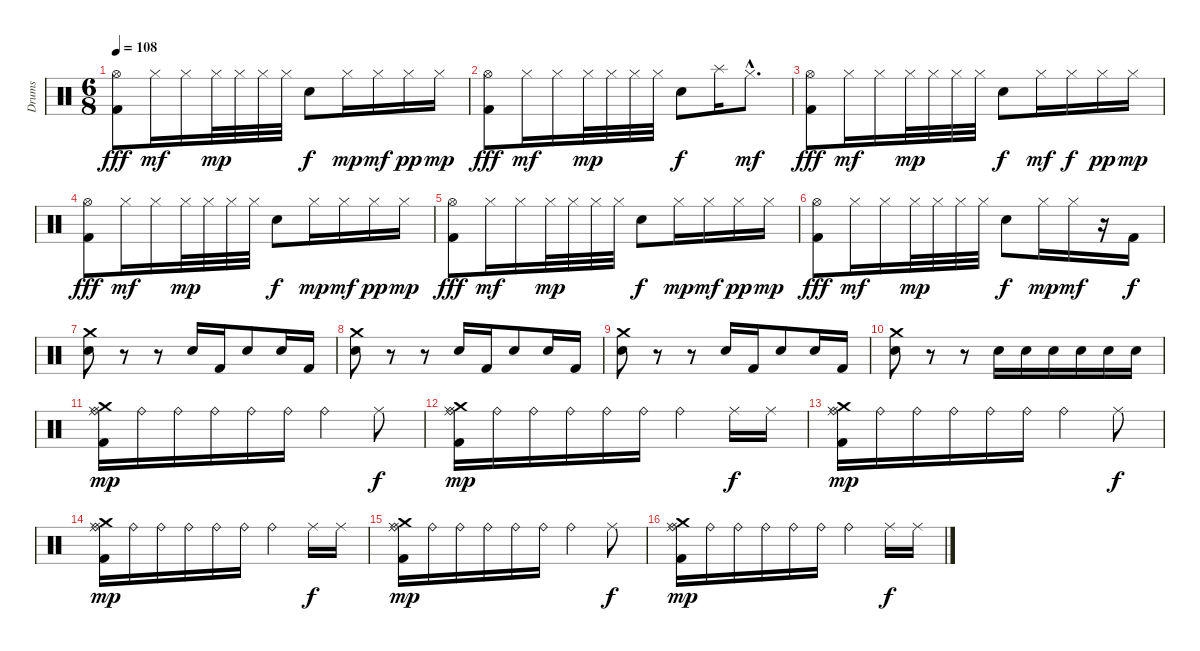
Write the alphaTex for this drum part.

\track ("Drums" "Drums") {instrument percussion}
\staff {score}
\articulation defaults
\ts (6 8)
\tempo 108
\clef neutral
\ks c
("Hi-Hat (open)" "Kick (hit) 2").8{dy fff} "Hi-Hat (closed)".16{dy mf} "Hi-Hat (closed)".16 "Hi-Hat (closed)".32{dy mp} "Hi-Hat (closed)".32 "Hi-Hat (closed)".32 "Hi-Hat (closed)".32 "Snare (hit) 2".8{dy f} "Hi-Hat (closed)".16{dy mp} "Hi-Hat (closed)".16{dy mf} "Hi-Hat (closed)".16{dy pp} "Hi-Hat (closed)".16{dy mp} |
("Hi-Hat (open)" "Kick (hit) 2").8{dy fff} "Hi-Hat (closed)".16{dy mf} "Hi-Hat (closed)".16 "Hi-Hat (closed)".32{dy mp} "Hi-Hat (closed)".32 "Hi-Hat (closed)".32 "Hi-Hat (closed)".32 "Snare (hit) 2".8{dy f} "Splash (hit)".16 "Hi-Hat (closed)"{hac}.8{d dy mf} |
("Hi-Hat (open)" "Kick (hit) 2").8{dy fff} "Hi-Hat (closed)".16{dy mf} "Hi-Hat (closed)".16 "Hi-Hat (closed)".32{dy mp} "Hi-Hat (closed)".32 "Hi-Hat (closed)".32 "Hi-Hat (closed)".32 "Snare (hit) 2".8{dy f} "Hi-Hat (closed)".16{dy mf} "Hi-Hat (closed)".16{dy f} "Hi-Hat (closed)".16{dy pp} "Hi-Hat (closed)".16{dy mp} |
("Hi-Hat (open)" "Kick (hit) 2").8{dy fff} "Hi-Hat (closed)".16{dy mf} "Hi-Hat (closed)".16 "Hi-Hat (closed)".32{dy mp} "Hi-Hat (closed)".32 "Hi-Hat (closed)".32 "Hi-Hat (closed)".32 "Snare (hit) 2".8{dy f} "Hi-Hat (closed)".16{dy mp} "Hi-Hat (closed)".16{dy mf} "Hi-Hat (closed)".16{dy pp} "Hi-Hat (closed)".16{dy mp} |
("Hi-Hat (open)" "Kick (hit) 2").8{dy fff} "Hi-Hat (closed)".16{dy mf} "Hi-Hat (closed)".16 "Hi-Hat (closed)".32{dy mp} "Hi-Hat (closed)".32 "Hi-Hat (closed)".32 "Hi-Hat (closed)".32 "Snare (hit) 2".8{dy f} "Hi-Hat (closed)".16{dy mp} "Hi-Hat (closed)".16{dy mf} "Hi-Hat (closed)".16{dy pp} "Hi-Hat (closed)".16{dy mp} |
("Hi-Hat (open)" "Kick (hit) 2").8{dy fff} "Hi-Hat (closed)".16{dy mf} "Hi-Hat (closed)".16 "Hi-Hat (closed)".32{dy mp} "Hi-Hat (closed)".32 "Hi-Hat (closed)".32 "Hi-Hat (closed)".32 "Snare (hit) 2".8{dy f} "Hi-Hat (closed)".16{dy mp} "Hi-Hat (closed)".16{dy mf} r.16 "Kick (hit) 2".16{dy f} |
("Crash medium (hit)" "Snare (hit) 2").8 r.8 r.8 "Snare (hit) 2".16 "Kick (hit) 2".16 "Snare (hit) 2".8 "Snare (hit) 2".16 "Kick (hit) 2".16 |
("Crash medium (hit)" "Snare (hit) 2").8 r.8 r.8 "Snare (hit) 2".16 "Kick (hit) 2".16 "Snare (hit) 2".8 "Snare (hit) 2".16 "Kick (hit) 2".16 |
("Crash medium (hit)" "Snare (hit) 2").8 r.8 r.8 "Snare (hit) 2".16 "Kick (hit) 2".16 "Snare (hit) 2".8 "Snare (hit) 2".16 "Kick (hit) 2".16 |
("Crash medium (hit)" "Snare (hit) 2").8 r.8 r.8 "Snare (hit) 2".16 "Snare (hit) 2".16 "Snare (hit) 2".16 "Snare (hit) 2".16 "Snare (hit) 2".16 "Snare (hit) 2".16 |
("Ride (bell)" "Ride (middle)" "Crash medium (hit)" "Kick (hit) 2").16{dy mp} "Ride (bell)".16 "Ride (bell)".16 "Ride (bell)".16 "Ride (bell)".16 "Ride (bell)".16 "Ride (bell)".4 "Ride (middle)".8{dy f} |
("Ride (bell)" "Ride (middle)" "Crash medium (hit)" "Kick (hit) 2").16{dy mp} "Ride (bell)".16 "Ride (bell)".16 "Ride (bell)".16 "Ride (bell)".16 "Ride (bell)".16 "Ride (bell)".4 "Ride (middle)".16{dy f} "Ride (middle)".16 |
("Ride (bell)" "Ride (middle)" "Crash medium (hit)" "Kick (hit) 2").16{dy mp} "Ride (bell)".16 "Ride (bell)".16 "Ride (bell)".16 "Ride (bell)".16 "Ride (bell)".16 "Ride (bell)".4 "Ride (middle)".8{dy f} |
("Ride (bell)" "Ride (middle)" "Crash medium (hit)" "Kick (hit) 2").16{dy mp} "Ride (bell)".16 "Ride (bell)".16 "Ride (bell)".16 "Ride (bell)".16 "Ride (bell)".16 "Ride (bell)".4 "Ride (middle)".16{dy f} "Ride (middle)".16 |
("Ride (bell)" "Ride (middle)" "Crash medium (hit)" "Kick (hit) 2").16{dy mp} "Ride (bell)".16 "Ride (bell)".16 "Ride (bell)".16 "Ride (bell)".16 "Ride (bell)".16 "Ride (bell)".4 "Ride (middle)".8{dy f} |
("Ride (bell)" "Ride (middle)" "Crash medium (hit)" "Kick (hit) 2").16{dy mp} "Ride (bell)".16 "Ride (bell)".16 "Ride (bell)".16 "Ride (bell)".16 "Ride (bell)".16 "Ride (bell)".4 "Ride (middle)".16{dy f} "Ride (middle)".16
